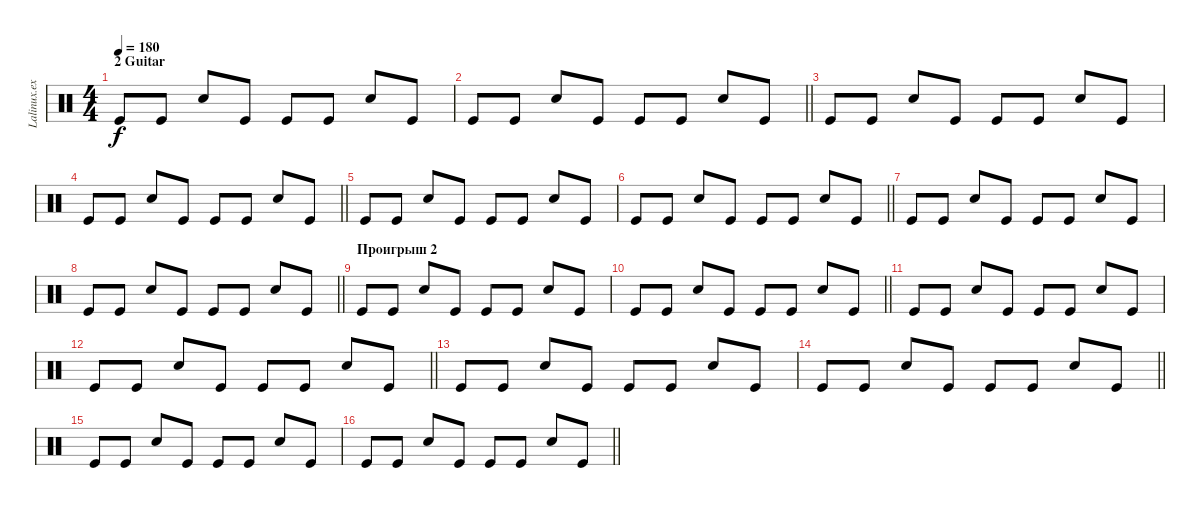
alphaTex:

\track ("Lalinux.exe" "Lalinux.ex") {instrument percussion}
\staff {score}
\articulation defaults
\ts (4 4)
\section ("" "2 Guitar ")
\tempo 180
\clef neutral
\ks c "Kick (hit)".8{dy f} "Kick (hit)".8 "Electric Snare (hit)".8 "Kick (hit)".8 "Kick (hit)".8 "Kick (hit)".8 "Electric Snare (hit)".8 "Kick (hit)".8
|
\barLineRight lightlight "Kick (hit)".8 "Kick (hit)".8 "Electric Snare (hit)".8 "Kick (hit)".8 "Kick (hit)".8 "Kick (hit)".8 "Electric Snare (hit)".8 "Kick (hit)".8
|
"Kick (hit)".8 "Kick (hit)".8 "Electric Snare (hit)".8 "Kick (hit)".8 "Kick (hit)".8 "Kick (hit)".8 "Electric Snare (hit)".8 "Kick (hit)".8 |
\barLineRight lightlight "Kick (hit)".8 "Kick (hit)".8 "Electric Snare (hit)".8 "Kick (hit)".8 "Kick (hit)".8 "Kick (hit)".8 "Electric Snare (hit)".8 "Kick (hit)".8
|
"Kick (hit)".8 "Kick (hit)".8 "Electric Snare (hit)".8 "Kick (hit)".8 "Kick (hit)".8 "Kick (hit)".8 "Electric Snare (hit)".8 "Kick (hit)".8 |
\barLineRight lightlight "Kick (hit)".8 "Kick (hit)".8 "Electric Snare (hit)".8 "Kick (hit)".8 "Kick (hit)".8 "Kick (hit)".8 "Electric Snare (hit)".8 "Kick (hit)".8
|
"Kick (hit)".8 "Kick (hit)".8 "Electric Snare (hit)".8 "Kick (hit)".8 "Kick (hit)".8 "Kick (hit)".8 "Electric Snare (hit)".8 "Kick (hit)".8 |
\barLineRight lightlight "Kick (hit)".8 "Kick (hit)".8 "Electric Snare (hit)".8 "Kick (hit)".8 "Kick (hit)".8 "Kick (hit)".8 "Electric Snare (hit)".8 "Kick (hit)".8
|
\section ("" "Проигрыш 2")
"Kick (hit)".8 "Kick (hit)".8 "Electric Snare (hit)".8 "Kick (hit)".8 "Kick (hit)".8 "Kick (hit)".8 "Electric Snare (hit)".8 "Kick (hit)".8 |
\barLineRight lightlight "Kick (hit)".8 "Kick (hit)".8 "Electric Snare (hit)".8 "Kick (hit)".8 "Kick (hit)".8 "Kick (hit)".8 "Electric Snare (hit)".8 "Kick (hit)".8
|
"Kick (hit)".8 "Kick (hit)".8 "Electric Snare (hit)".8 "Kick (hit)".8 "Kick (hit)".8 "Kick (hit)".8 "Electric Snare (hit)".8 "Kick (hit)".8 |
\barLineRight lightlight "Kick (hit)".8 "Kick (hit)".8 "Electric Snare (hit)".8 "Kick (hit)".8 "Kick (hit)".8 "Kick (hit)".8 "Electric Snare (hit)".8 "Kick (hit)".8
|
"Kick (hit)".8 "Kick (hit)".8 "Electric Snare (hit)".8 "Kick (hit)".8 "Kick (hit)".8 "Kick (hit)".8 "Electric Snare (hit)".8 "Kick (hit)".8 |
\barLineRight lightlight "Kick (hit)".8 "Kick (hit)".8 "Electric Snare (hit)".8 "Kick (hit)".8 "Kick (hit)".8 "Kick (hit)".8 "Electric Snare (hit)".8 "Kick (hit)".8
|
"Kick (hit)".8 "Kick (hit)".8 "Electric Snare (hit)".8 "Kick (hit)".8 "Kick (hit)".8 "Kick (hit)".8 "Electric Snare (hit)".8 "Kick (hit)".8 |
\barLineRight lightlight "Kick (hit)".8 "Kick (hit)".8 "Electric Snare (hit)".8 "Kick (hit)".8 "Kick (hit)".8 "Kick (hit)".8 "Electric Snare (hit)".8 "Kick (hit)".8
